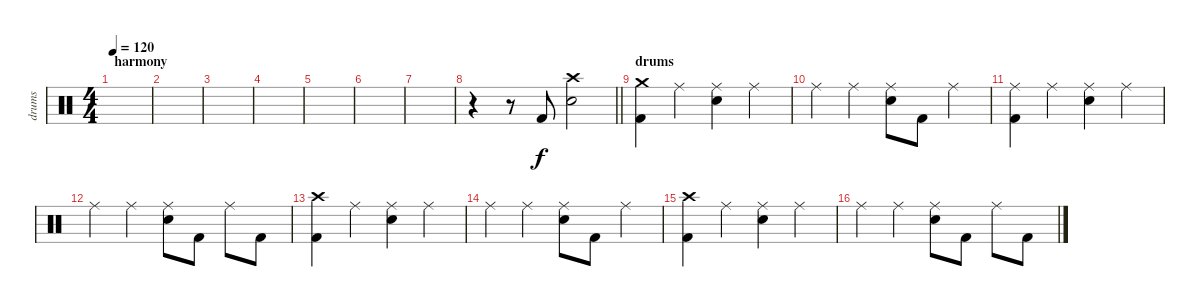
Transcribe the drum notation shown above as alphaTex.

\track ("drums" "drums") {instrument percussion}
\staff {score}
\articulation defaults
\ts (4 4)
\section ("" "harmony")
\tempo 120
\clef neutral
\ks c
|
|
|
|
|
|
|
\barLineRight lightlight
r.4 r.8 "Kick (hit) 2".8 ("Crash high (hit)" "Electric Snare (hit)").2 |
\section ("" "drums")
("Crash medium (hit)" "Kick (hit) 2").4 "Ride (middle)".4 ("Ride (middle)" "Electric Snare (hit)").4 "Ride (middle)".4 |
"Ride (middle)".4 "Ride (middle)".4 ("Ride (middle)" "Electric Snare (hit)").8 "Kick (hit) 2".8 "Ride (middle)".4 |
("Ride (middle)" "Kick (hit) 2").4 "Ride (middle)".4 ("Ride (middle)" "Electric Snare (hit)").4 "Ride (middle)".4 |
"Ride (middle)".4 "Ride (middle)".4 ("Ride (middle)" "Electric Snare (hit)").8 "Kick (hit) 2".8 "Ride (middle)".8 "Kick (hit) 2".8 |
("Crash high (hit)" "Kick (hit) 2").4 "Ride (middle)".4 ("Ride (middle)" "Electric Snare (hit)").4 "Ride (middle)".4 |
"Ride (middle)".4 "Ride (middle)".4 ("Ride (middle)" "Electric Snare (hit)").8 "Kick (hit) 2".8 "Ride (middle)".4 |
("Crash high (hit)" "Kick (hit) 2").4 "Ride (middle)".4 ("Ride (middle)" "Electric Snare (hit)").4 "Ride (middle)".4 |
"Ride (middle)".4 "Ride (middle)".4 ("Ride (middle)" "Electric Snare (hit)").8 "Kick (hit) 2".8 "Ride (middle)".8 "Kick (hit) 2".8
